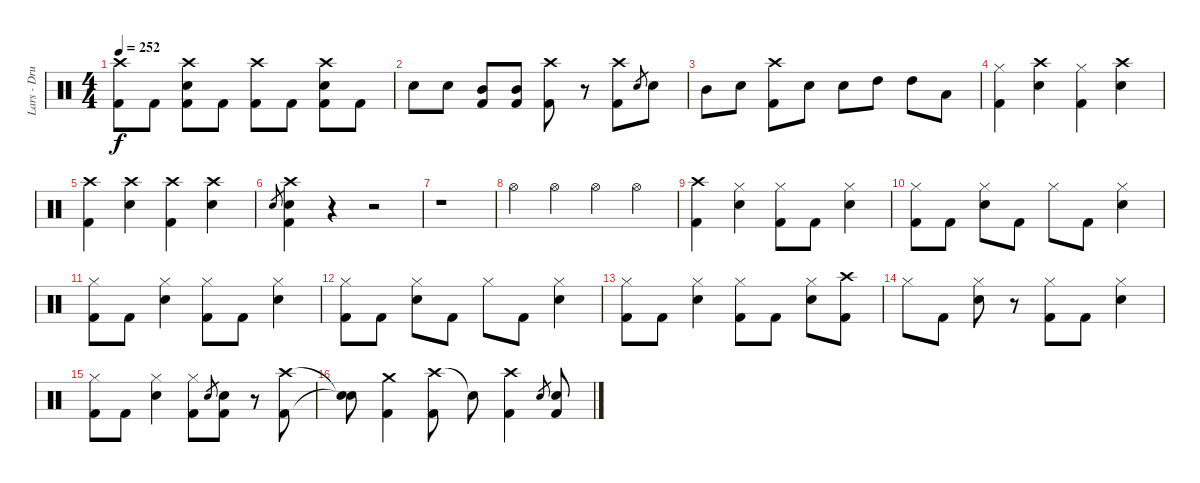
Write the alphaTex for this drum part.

\track ("Lars - Drums" "Lars - Dru") {instrument percussion}
\staff {score}
\articulation defaults
\ts (4 4)
\tempo 252
\clef neutral
\ks c
("Crash high (hit)" "Kick (hit) 2").8{dy f} "Kick (hit) 2".8 ("Crash high (hit)" "Electric Snare (hit)" "Kick (hit) 2").8 "Kick (hit) 2".8 ("Crash high (hit)" "Kick (hit) 2").8 "Kick (hit) 2".8 ("Crash high (hit)" "Electric Snare (hit)" "Kick (hit) 2").8 "Kick (hit) 2".8 |
"Electric Snare (hit)".8 "Electric Snare (hit)".8 ("Mid Tom (hit)" "Kick (hit) 2").8 ("Mid Tom (hit)" "Kick (hit) 2").8 ("Crash high (hit)" "Kick (hit) 2").8 r.8 ("Crash high (hit)" "Kick (hit) 2").8 "Electric Snare (hit)".8{gr} "Electric Snare (hit)".8 |
"Mid Tom (hit)".8 "Electric Snare (hit)".8 ("Crash high (hit)" "Kick (hit) 2").8 "Electric Snare (hit)".8 "Electric Snare (hit)".8 "High Tom (hit)".8 "High Tom (hit)".8 "Low Tom (hit)".8 |
("Hi-Hat (closed)" "Kick (hit) 2").4 ("Crash high (hit)" "Electric Snare (hit)").4 ("Hi-Hat (closed)" "Kick (hit) 2").4 ("Crash high (hit)" "Electric Snare (hit)").4 |
("Crash high (hit)" "Kick (hit) 2").4 ("Crash high (hit)" "Electric Snare (hit)").4 ("Crash high (hit)" "Kick (hit) 2").4 ("Crash high (hit)" "Electric Snare (hit)").4 |
"Electric Snare (hit)".8{gr} ("Crash high (hit)" "Electric Snare (hit)" "Kick (hit) 2").4 r.4 r.2 |
r.1 |
"Hi-Hat (open)".4 "Hi-Hat (open)".4 "Hi-Hat (open)".4 "Hi-Hat (open)".4 |
("Crash high (hit)" "Kick (hit) 2").4 ("Hi-Hat (closed)" "Electric Snare (hit)").4 ("Hi-Hat (closed)" "Kick (hit) 2").8 "Kick (hit) 2".8 ("Hi-Hat (closed)" "Electric Snare (hit)").4 |
("Hi-Hat (closed)" "Kick (hit) 2").8 "Kick (hit) 2".8 ("Hi-Hat (closed)" "Electric Snare (hit)").8 "Kick (hit) 2".8 "Hi-Hat (closed)".8 "Kick (hit) 2".8 ("Hi-Hat (closed)" "Electric Snare (hit)").4 |
("Hi-Hat (closed)" "Kick (hit) 2").8 "Kick (hit) 2".8 ("Hi-Hat (closed)" "Electric Snare (hit)").4 ("Hi-Hat (closed)" "Kick (hit) 2").8 "Kick (hit) 2".8 ("Hi-Hat (closed)" "Electric Snare (hit)").4 |
("Hi-Hat (closed)" "Kick (hit) 2").8 "Kick (hit) 2".8 ("Hi-Hat (closed)" "Electric Snare (hit)").8 "Kick (hit) 2".8 "Hi-Hat (closed)".8 "Kick (hit) 2".8 ("Hi-Hat (closed)" "Electric Snare (hit)").4 |
("Hi-Hat (closed)" "Kick (hit) 2").8 "Kick (hit) 2".8 ("Hi-Hat (closed)" "Electric Snare (hit)").4 ("Hi-Hat (closed)" "Kick (hit) 2").8 "Kick (hit) 2".8 ("Hi-Hat (closed)" "Electric Snare (hit)").8 ("Crash high (hit)" "Kick (hit) 2").8 |
"Hi-Hat (closed)".8 "Kick (hit) 2".8 ("Hi-Hat (closed)" "Electric Snare (hit)").8 r.8 ("Hi-Hat (closed)" "Kick (hit) 2").8 "Kick (hit) 2".8 ("Hi-Hat (closed)" "Electric Snare (hit)").4 |
("Hi-Hat (closed)" "Kick (hit) 2").8 "Kick (hit) 2".8 ("Hi-Hat (closed)" "Electric Snare (hit)").4 ("Hi-Hat (closed)" "Kick (hit) 2").8 "Electric Snare (hit)".8{gr} ("Electric Snare (hit)" "Kick (hit) 2").8 r.8 ("Crash high (hit)" "Kick (hit) 2").8 |
("Snare (hit)"{t} "Snare (hit)"{t}).8 ("Crash medium (hit)" "Kick (hit) 2").4 ("Crash high (hit)" "Kick (hit) 2").8 "Snare (hit)"{t}.8 ("Crash high (hit)" "Kick (hit) 2").4 "Electric Snare (hit)".8{gr} ("Electric Snare (hit)" "Kick (hit) 2").8
